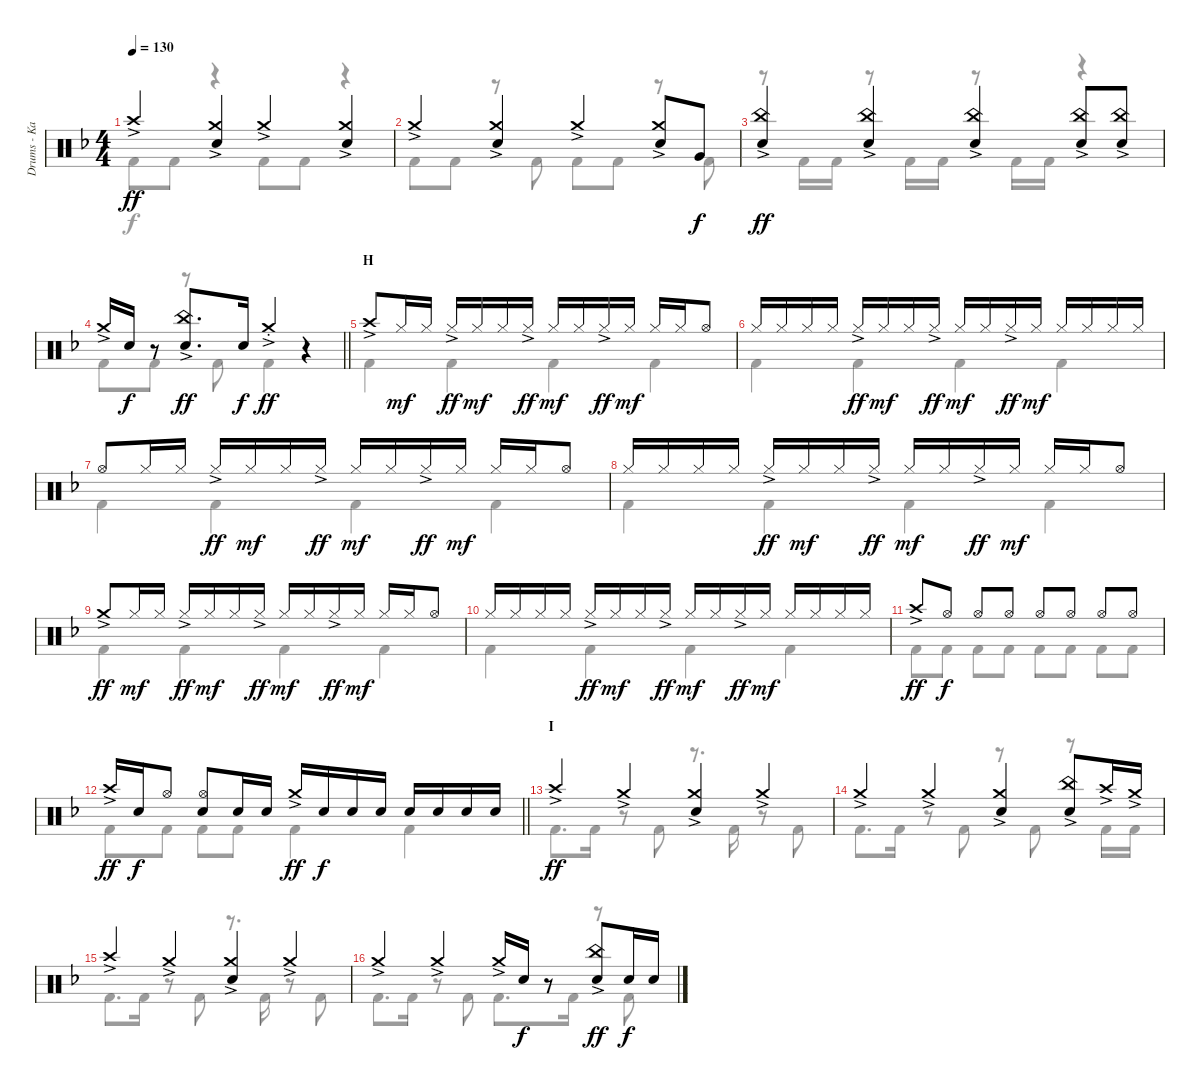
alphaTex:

\track ("Drums - Kai" "Drums - Ka") {instrument percussion}
\staff {score}
\articulation defaults
\voice
\ts (4 4)
\tempo 130
\clef neutral
\ks f "Crash high (hit)"{ac}.4{dy ff}
("Crash medium (hit)"{ac} "Snare (hit) 2").4 "Crash medium (hit)"{ac}.4 ("Crash medium (hit)"{ac} "Snare (hit) 2").4 |
"Crash medium (hit)"{ac}.4 ("Crash medium (hit)"{ac} "Snare (hit) 2").4 "Crash medium (hit)"{ac}.4 ("Crash medium (hit)"{ac} "Snare (hit) 2").8 "Very Low Tom (hit)".8{dy f} |
("China (hit)"{ac} "Snare (hit) 2").4{dy ff} ("China (hit)"{ac} "Snare (hit) 2").4 ("China (hit)"{ac} "Snare (hit) 2").4 ("China (hit)"{ac} "Snare (hit) 2").8 ("China (hit)"{ac} "Snare (hit) 2").8 |
\barLineRight lightlight "Crash medium (hit)"{ac}.16 "Snare (hit) 2".16{dy f}
r.8 ("China (hit)"{ac} "Snare (hit) 2").8{d dy ff} "Snare (hit) 2".16{dy f} "Crash medium (hit)"{ac st}.4{dy ff} r.4 |
\section ("" "H")
"Crash high (hit)"{ac}.8 "Hi-Hat (closed)".16{dy mf} "Hi-Hat (closed)".16 "Hi-Hat (closed)"{ac}.16{dy ff} "Hi-Hat (closed)".16{dy mf} "Hi-Hat (closed)".16 "Hi-Hat (closed)"{ac}.16{dy ff} "Hi-Hat (closed)".16{dy mf} "Hi-Hat (closed)".16 "Hi-Hat (closed)"{ac}.16{dy ff} "Hi-Hat (closed)".16{dy mf} "Hi-Hat (closed)".16 "Hi-Hat (closed)".16 "Hi-Hat (open)".8 |
"Hi-Hat (closed)".16 "Hi-Hat (closed)".16 "Hi-Hat (closed)".16 "Hi-Hat (closed)".16 "Hi-Hat (closed)"{ac}.16{dy ff} "Hi-Hat (closed)".16{dy mf} "Hi-Hat (closed)".16 "Hi-Hat (closed)"{ac}.16{dy ff} "Hi-Hat (closed)".16{dy mf} "Hi-Hat (closed)".16 "Hi-Hat (closed)"{ac}.16{dy ff} "Hi-Hat (closed)".16{dy mf} "Hi-Hat (closed)".16 "Hi-Hat (closed)".16 "Hi-Hat (closed)".16 "Hi-Hat (closed)".16 |
"Hi-Hat (open)".8 "Hi-Hat (closed)".16 "Hi-Hat (closed)".16 "Hi-Hat (closed)"{ac}.16{dy ff} "Hi-Hat (closed)".16{dy mf} "Hi-Hat (closed)".16 "Hi-Hat (closed)"{ac}.16{dy ff} "Hi-Hat (closed)".16{dy mf} "Hi-Hat (closed)".16 "Hi-Hat (closed)"{ac}.16{dy ff} "Hi-Hat (closed)".16{dy mf} "Hi-Hat (closed)".16 "Hi-Hat (closed)".16 "Hi-Hat (open)".8 |
"Hi-Hat (closed)".16 "Hi-Hat (closed)".16 "Hi-Hat (closed)".16 "Hi-Hat (closed)".16 "Hi-Hat (closed)"{ac}.16{dy ff} "Hi-Hat (closed)".16{dy mf} "Hi-Hat (closed)".16 "Hi-Hat (closed)"{ac}.16{dy ff} "Hi-Hat (closed)".16{dy mf} "Hi-Hat (closed)".16 "Hi-Hat (closed)"{ac}.16{dy ff} "Hi-Hat (closed)".16{dy mf} "Hi-Hat (closed)".16 "Hi-Hat (closed)".16 "Hi-Hat (open)".8 |
"Crash medium (hit)"{ac}.8{dy ff} "Hi-Hat (closed)".16{dy mf} "Hi-Hat (closed)".16 "Hi-Hat (closed)"{ac}.16{dy ff} "Hi-Hat (closed)".16{dy mf} "Hi-Hat (closed)".16 "Hi-Hat (closed)"{ac}.16{dy ff} "Hi-Hat (closed)".16{dy mf} "Hi-Hat (closed)".16 "Hi-Hat (closed)"{ac}.16{dy ff} "Hi-Hat (closed)".16{dy mf} "Hi-Hat (closed)".16 "Hi-Hat (closed)".16 "Hi-Hat (open)".8 |
"Hi-Hat (closed)".16 "Hi-Hat (closed)".16 "Hi-Hat (closed)".16 "Hi-Hat (closed)".16 "Hi-Hat (closed)"{ac}.16{dy ff} "Hi-Hat (closed)".16{dy mf} "Hi-Hat (closed)".16 "Hi-Hat (closed)"{ac}.16{dy ff} "Hi-Hat (closed)".16{dy mf} "Hi-Hat (closed)".16 "Hi-Hat (closed)"{ac}.16{dy ff} "Hi-Hat (closed)".16{dy mf} "Hi-Hat (closed)".16 "Hi-Hat (closed)".16 "Hi-Hat (closed)".16 "Hi-Hat (closed)".16 |
"Crash high (hit)"{ac}.8{dy ff} "Hi-Hat (open)".8{dy f} "Hi-Hat (open)".8 "Hi-Hat (open)".8 "Hi-Hat (open)".8 "Hi-Hat (open)".8 "Hi-Hat (open)".8 "Hi-Hat (open)".8 |
\barLineRight lightlight "Crash high (hit)"{ac}.16{dy ff} "Snare (hit) 2".16{dy f} "Hi-Hat (open)".8
("Hi-Hat (open)" "Snare (hit) 2").8 "Snare (hit) 2".16 "Snare (hit) 2".16 "Crash medium (hit)"{ac}.16{dy ff} "Snare (hit) 2".16{dy f} "Snare (hit) 2".16 "Snare (hit) 2".16 "Snare (hit) 2".16 "Snare (hit) 2".16 "Snare (hit) 2".16 "Snare (hit) 2".16 |
\section ("" "I")
"Crash high (hit)"{ac}.4{dy ff} "Crash medium (hit)"{ac}.4 ("Crash medium (hit)"{ac} "Snare (hit) 2").4 "Crash medium (hit)"{ac}.4 |
"Crash medium (hit)"{ac}.4 "Crash medium (hit)"{ac}.4 ("Crash medium (hit)"{ac} "Snare (hit) 2").4 ("China (hit)"{ac} "Snare (hit) 2").8 "Crash high (hit)"{ac}.16 "Crash medium (hit)"{ac}.16 |
"Crash high (hit)"{ac}.4 "Crash medium (hit)"{ac}.4 ("Crash medium (hit)"{ac} "Snare (hit) 2").4 "Crash medium (hit)"{ac}.4 |
"Crash medium (hit)"{ac}.4 "Crash medium (hit)"{ac}.4 "Crash medium (hit)"{ac}.16 "Snare (hit) 2".16{dy f} r.8 ("China (hit)"{ac} "Snare (hit) 2").8{dy ff} "Snare (hit) 2".16{dy f} "Snare (hit) 2".16
\voice
\clef neutral
\ottava regular
\simile none
\ks f "Kick (hit) 2".8{dy f} "Kick (hit) 2".8
r.4 "Kick (hit) 2".8 "Kick (hit) 2".8 r.4 |
"Kick (hit) 2".8 "Kick (hit) 2".8 r.8 "Kick (hit) 2".8 "Kick (hit) 2".8 "Kick (hit) 2".8 r.8 "Kick (hit) 2".8 |
r.8 "Kick (hit) 2".16 "Kick (hit) 2".16 r.8 "Kick (hit) 2".16 "Kick (hit) 2".16 r.8 "Kick (hit) 2".16 "Kick (hit) 2".16 r.4 |
\barLineRight lightlight "Kick (hit) 2".8 "Kick (hit) 2".8
r.8 "Kick (hit) 2".8 "Kick (hit) 2".4 r.4 |
"Kick (hit) 2".4 "Kick (hit) 2".4 "Kick (hit) 2".4 "Kick (hit) 2".4 |
"Kick (hit) 2".4 "Kick (hit) 2".4 "Kick (hit) 2".4 "Kick (hit) 2".4 |
"Kick (hit) 2".4 "Kick (hit) 2".4 "Kick (hit) 2".4 "Kick (hit) 2".4 |
"Kick (hit) 2".4 "Kick (hit) 2".4 "Kick (hit) 2".4 "Kick (hit) 2".4 |
"Kick (hit) 2".4 "Kick (hit) 2".4 "Kick (hit) 2".4 "Kick (hit) 2".4 |
"Kick (hit) 2".4 "Kick (hit) 2".4 "Kick (hit) 2".4 "Kick (hit) 2".4 |
"Kick (hit) 2".8 "Kick (hit) 2".8 "Kick (hit) 2".8 "Kick (hit) 2".8 "Kick (hit) 2".8 "Kick (hit) 2".8 "Kick (hit) 2".8 "Kick (hit) 2".8 |
\barLineRight lightlight "Kick (hit) 2".8 "Kick (hit) 2".8 "Kick (hit) 2".8 "Kick (hit) 2".8 "Kick (hit) 2".4 "Kick (hit) 2".4
|
"Kick (hit) 2".8{d} "Kick (hit) 2".16 r.8 "Kick (hit) 2".8 r.8{d} "Kick (hit) 2".16 r.8 "Kick (hit) 2".8 |
"Kick (hit) 2".8{d} "Kick (hit) 2".16 r.8 "Kick (hit) 2".8 r.8 "Kick (hit) 2".8 r.8 "Kick (hit) 2".16 "Kick (hit) 2".16 |
"Kick (hit) 2".8{d} "Kick (hit) 2".16 r.8 "Kick (hit) 2".8 r.8{d} "Kick (hit) 2".16 r.8 "Kick (hit) 2".8 |
"Kick (hit) 2".8{d} "Kick (hit) 2".16 r.8 "Kick (hit) 2".8 "Kick (hit) 2".8{d} "Kick (hit) 2".16 r.8 "Kick (hit) 2".8
